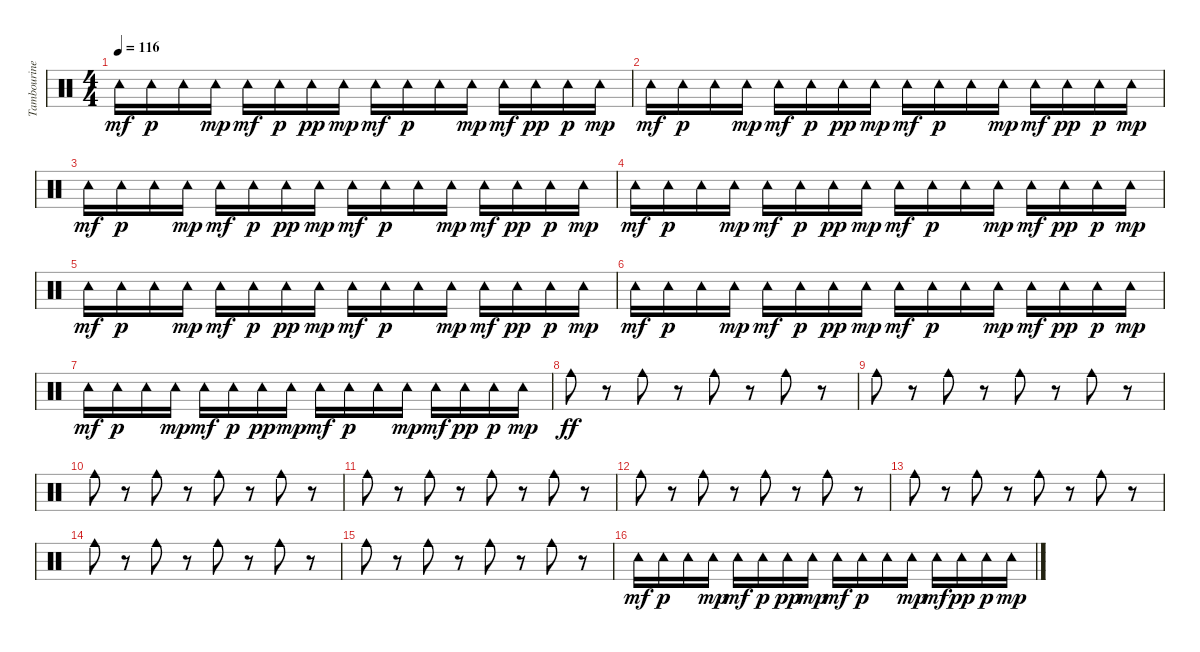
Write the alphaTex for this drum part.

\track ("Tambourine" "Tambourine") {instrument percussion}
\staff {score}
\articulation defaults
\ts (4 4)
\tempo 116
\clef neutral
\ks c "Tambourine (hit)".16{dy mf} "Tambourine (hit)".16{dy p} "Tambourine (hit)".16 "Tambourine (hit)".16{dy mp} "Tambourine (hit)".16{dy mf} "Tambourine (hit)".16{dy p} "Tambourine (hit)".16{dy pp} "Tambourine (hit)".16{dy mp} "Tambourine (hit)".16{dy mf} "Tambourine (hit)".16{dy p} "Tambourine (hit)".16 "Tambourine (hit)".16{dy mp} "Tambourine (hit)".16{dy mf} "Tambourine (hit)".16{dy pp} "Tambourine (hit)".16{dy p} "Tambourine (hit)".16{dy mp}
|
"Tambourine (hit)".16{dy mf} "Tambourine (hit)".16{dy p} "Tambourine (hit)".16 "Tambourine (hit)".16{dy mp} "Tambourine (hit)".16{dy mf} "Tambourine (hit)".16{dy p} "Tambourine (hit)".16{dy pp} "Tambourine (hit)".16{dy mp} "Tambourine (hit)".16{dy mf} "Tambourine (hit)".16{dy p} "Tambourine (hit)".16 "Tambourine (hit)".16{dy mp} "Tambourine (hit)".16{dy mf} "Tambourine (hit)".16{dy pp} "Tambourine (hit)".16{dy p} "Tambourine (hit)".16{dy mp} |
"Tambourine (hit)".16{dy mf} "Tambourine (hit)".16{dy p} "Tambourine (hit)".16 "Tambourine (hit)".16{dy mp} "Tambourine (hit)".16{dy mf} "Tambourine (hit)".16{dy p} "Tambourine (hit)".16{dy pp} "Tambourine (hit)".16{dy mp} "Tambourine (hit)".16{dy mf} "Tambourine (hit)".16{dy p} "Tambourine (hit)".16 "Tambourine (hit)".16{dy mp} "Tambourine (hit)".16{dy mf} "Tambourine (hit)".16{dy pp} "Tambourine (hit)".16{dy p} "Tambourine (hit)".16{dy mp} |
"Tambourine (hit)".16{dy mf} "Tambourine (hit)".16{dy p} "Tambourine (hit)".16 "Tambourine (hit)".16{dy mp} "Tambourine (hit)".16{dy mf} "Tambourine (hit)".16{dy p} "Tambourine (hit)".16{dy pp} "Tambourine (hit)".16{dy mp} "Tambourine (hit)".16{dy mf} "Tambourine (hit)".16{dy p} "Tambourine (hit)".16 "Tambourine (hit)".16{dy mp} "Tambourine (hit)".16{dy mf} "Tambourine (hit)".16{dy pp} "Tambourine (hit)".16{dy p} "Tambourine (hit)".16{dy mp} |
"Tambourine (hit)".16{dy mf} "Tambourine (hit)".16{dy p} "Tambourine (hit)".16 "Tambourine (hit)".16{dy mp} "Tambourine (hit)".16{dy mf} "Tambourine (hit)".16{dy p} "Tambourine (hit)".16{dy pp} "Tambourine (hit)".16{dy mp} "Tambourine (hit)".16{dy mf} "Tambourine (hit)".16{dy p} "Tambourine (hit)".16 "Tambourine (hit)".16{dy mp} "Tambourine (hit)".16{dy mf} "Tambourine (hit)".16{dy pp} "Tambourine (hit)".16{dy p} "Tambourine (hit)".16{dy mp} |
"Tambourine (hit)".16{dy mf} "Tambourine (hit)".16{dy p} "Tambourine (hit)".16 "Tambourine (hit)".16{dy mp} "Tambourine (hit)".16{dy mf} "Tambourine (hit)".16{dy p} "Tambourine (hit)".16{dy pp} "Tambourine (hit)".16{dy mp} "Tambourine (hit)".16{dy mf} "Tambourine (hit)".16{dy p} "Tambourine (hit)".16 "Tambourine (hit)".16{dy mp} "Tambourine (hit)".16{dy mf} "Tambourine (hit)".16{dy pp} "Tambourine (hit)".16{dy p} "Tambourine (hit)".16{dy mp} |
"Tambourine (hit)".16{dy mf} "Tambourine (hit)".16{dy p} "Tambourine (hit)".16 "Tambourine (hit)".16{dy mp} "Tambourine (hit)".16{dy mf} "Tambourine (hit)".16{dy p} "Tambourine (hit)".16{dy pp} "Tambourine (hit)".16{dy mp} "Tambourine (hit)".16{dy mf} "Tambourine (hit)".16{dy p} "Tambourine (hit)".16 "Tambourine (hit)".16{dy mp} "Tambourine (hit)".16{dy mf} "Tambourine (hit)".16{dy pp} "Tambourine (hit)".16{dy p} "Tambourine (hit)".16{dy mp} |
"Cowbell medium (hit)".8{dy ff} r.8 "Cowbell medium (hit)".8 r.8 "Cowbell medium (hit)".8 r.8 "Cowbell medium (hit)".8 r.8 |
"Cowbell medium (hit)".8 r.8 "Cowbell medium (hit)".8 r.8 "Cowbell medium (hit)".8 r.8 "Cowbell medium (hit)".8 r.8 |
"Cowbell medium (hit)".8 r.8 "Cowbell medium (hit)".8 r.8 "Cowbell medium (hit)".8 r.8 "Cowbell medium (hit)".8 r.8 |
"Cowbell medium (hit)".8 r.8 "Cowbell medium (hit)".8 r.8 "Cowbell medium (hit)".8 r.8 "Cowbell medium (hit)".8 r.8 |
"Cowbell medium (hit)".8 r.8 "Cowbell medium (hit)".8 r.8 "Cowbell medium (hit)".8 r.8 "Cowbell medium (hit)".8 r.8 |
"Cowbell medium (hit)".8 r.8 "Cowbell medium (hit)".8 r.8 "Cowbell medium (hit)".8 r.8 "Cowbell medium (hit)".8 r.8 |
"Cowbell medium (hit)".8 r.8 "Cowbell medium (hit)".8 r.8 "Cowbell medium (hit)".8 r.8 "Cowbell medium (hit)".8 r.8 |
"Cowbell medium (hit)".8 r.8 "Cowbell medium (hit)".8 r.8 "Cowbell medium (hit)".8 r.8 "Cowbell medium (hit)".8 r.8 |
"Tambourine (hit)".16{dy mf} "Tambourine (hit)".16{dy p} "Tambourine (hit)".16 "Tambourine (hit)".16{dy mp} "Tambourine (hit)".16{dy mf} "Tambourine (hit)".16{dy p} "Tambourine (hit)".16{dy pp} "Tambourine (hit)".16{dy mp} "Tambourine (hit)".16{dy mf} "Tambourine (hit)".16{dy p} "Tambourine (hit)".16 "Tambourine (hit)".16{dy mp} "Tambourine (hit)".16{dy mf} "Tambourine (hit)".16{dy pp} "Tambourine (hit)".16{dy p} "Tambourine (hit)".16{dy mp}
